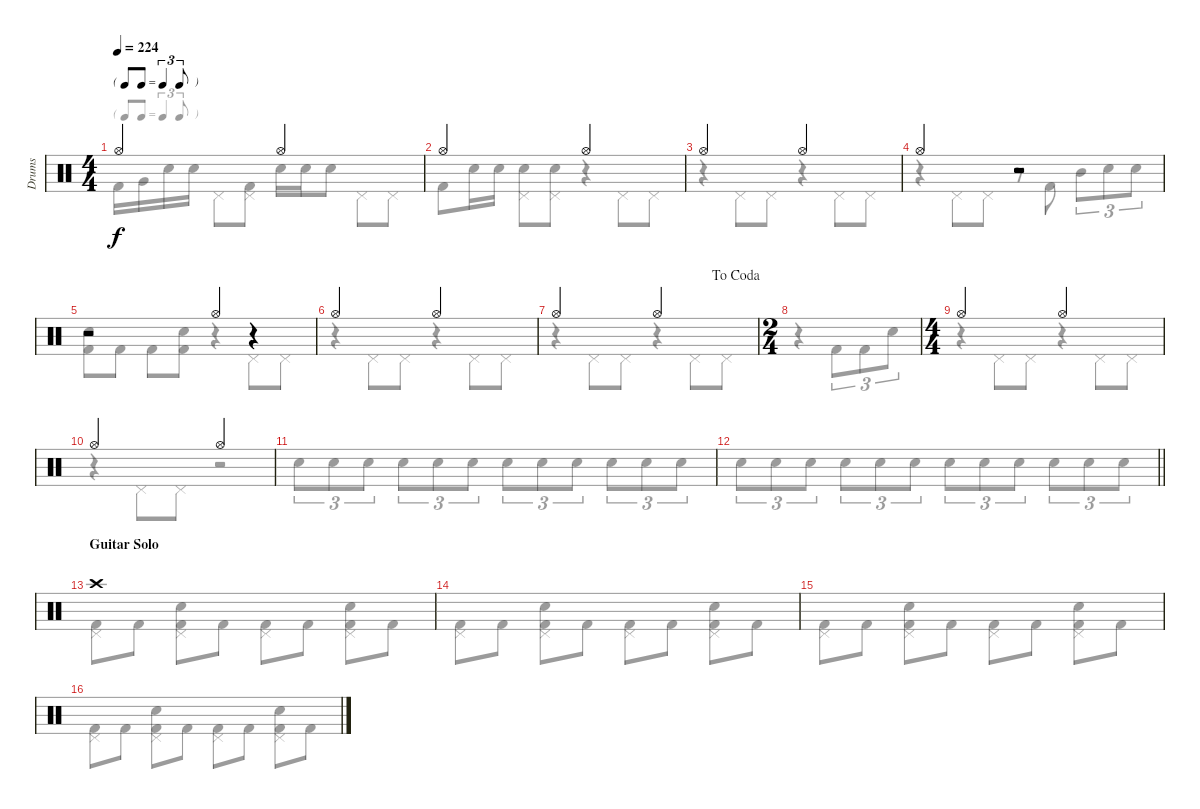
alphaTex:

\track ("Drums" "Drums") {instrument percussion}
\staff {score}
\articulation defaults
\voice
\ts (4 4)
\tf triplet8th
\tempo 224
\clef neutral
\ks c "Hi-Hat (open)".2{dy f} "Hi-Hat (open)".2
|
"Hi-Hat (open)".2 "Hi-Hat (open)".2 |
"Hi-Hat (open)".2 "Hi-Hat (open)".2 |
"Hi-Hat (open)".2 r.2 |
r.2 "Hi-Hat (open)".4 r.4 |
"Hi-Hat (open)".2 "Hi-Hat (open)".2 |
\jump dacoda "Hi-Hat (open)".2 "Hi-Hat (open)".2
|
\ts (2 4)
|
\ts (4 4)
"Hi-Hat (open)".2 "Hi-Hat (open)".2 |
"Hi-Hat (open)".2 "Hi-Hat (open)".2 |
|
\barLineRight lightlight
|
\section ("" "Guitar Solo")
"Crash high (hit)".1 |
|
|
\voice
\clef neutral
\ottava regular
\simile none
\ks c "Kick (hit) 2".16{dy f} "Very Low Tom (hit)".16 "Electric Snare (hit)".16 "Electric Snare (hit)".16 "Pedal Hi-Hat (hit)".8
("Pedal Hi-Hat (hit)" "Kick (hit) 2").8 "Electric Snare (hit)".16 "Electric Snare (hit)".16 "Electric Snare (hit)".8 "Pedal Hi-Hat (hit)".8 "Pedal Hi-Hat (hit)".8 |
"Kick (hit) 2".8 "Electric Snare (hit)".16 "Electric Snare (hit)".16 ("Electric Snare (hit)" "Pedal Hi-Hat (hit)").8 ("Electric Snare (hit)" "Pedal Hi-Hat (hit)").8 r.4 "Pedal Hi-Hat (hit)".8 "Pedal Hi-Hat (hit)".8 |
r.4 "Pedal Hi-Hat (hit)".8 "Pedal Hi-Hat (hit)".8 r.4 "Pedal Hi-Hat (hit)".8 "Pedal Hi-Hat (hit)".8 |
r.4 "Pedal Hi-Hat (hit)".8 "Pedal Hi-Hat (hit)".8 r.8 "Kick (hit) 2".8 "Mid Tom (hit)".8{tu (3 2)} "Electric Snare (hit)".8{tu (3 2)} "Electric Snare (hit)".8{tu (3 2)} |
("Electric Snare (hit)" "Kick (hit) 2").8 "Kick (hit) 2".8 "Kick (hit) 2".8 ("Electric Snare (hit)" "Kick (hit) 2").8 r.4 "Pedal Hi-Hat (hit)".8 "Pedal Hi-Hat (hit)".8 |
r.4 "Pedal Hi-Hat (hit)".8 "Pedal Hi-Hat (hit)".8 r.4 "Pedal Hi-Hat (hit)".8 "Pedal Hi-Hat (hit)".8 |
r.4 "Pedal Hi-Hat (hit)".8 "Pedal Hi-Hat (hit)".8 r.4 "Pedal Hi-Hat (hit)".8 "Pedal Hi-Hat (hit)".8 |
r.4 "Kick (hit) 2".8{tu (3 2)} "Kick (hit) 2".8{tu (3 2)} "Electric Snare (hit)".8{tu (3 2)} |
r.4 "Pedal Hi-Hat (hit)".8 "Pedal Hi-Hat (hit)".8 r.4 "Pedal Hi-Hat (hit)".8 "Pedal Hi-Hat (hit)".8 |
r.4 "Pedal Hi-Hat (hit)".8 "Pedal Hi-Hat (hit)".8 r.2 |
"Electric Snare (hit)".8{tu (3 2)} "Electric Snare (hit)".8{tu (3 2)} "Electric Snare (hit)".8{tu (3 2)} "Electric Snare (hit)".8{tu (3 2)} "Electric Snare (hit)".8{tu (3 2)} "Electric Snare (hit)".8{tu (3 2)} "Electric Snare (hit)".8{tu (3 2)} "Electric Snare (hit)".8{tu (3 2)} "Electric Snare (hit)".8{tu (3 2)} "Electric Snare (hit)".8{tu (3 2)} "Electric Snare (hit)".8{tu (3 2)} "Electric Snare (hit)".8{tu (3 2)} |
\barLineRight lightlight "Electric Snare (hit)".8{tu (3 2)} "Electric Snare (hit)".8{tu (3 2)} "Electric Snare (hit)".8{tu (3 2)} "Electric Snare (hit)".8{tu (3 2)} "Electric Snare (hit)".8{tu (3 2)} "Electric Snare (hit)".8{tu (3 2)} "Electric Snare (hit)".8{tu (3 2)} "Electric Snare (hit)".8{tu (3 2)} "Electric Snare (hit)".8{tu (3 2)} "Electric Snare (hit)".8{tu (3 2)} "Electric Snare (hit)".8{tu (3 2)} "Electric Snare (hit)".8{tu (3 2)}
|
("Kick (hit) 2" "Pedal Hi-Hat (hit)").8 "Kick (hit) 2".8 ("Electric Snare (hit)" "Kick (hit) 2" "Pedal Hi-Hat (hit)").8 "Kick (hit) 2".8 ("Kick (hit) 2" "Pedal Hi-Hat (hit)").8 "Kick (hit) 2".8 ("Electric Snare (hit)" "Kick (hit) 2" "Pedal Hi-Hat (hit)").8 "Kick (hit) 2".8 |
("Kick (hit) 2" "Pedal Hi-Hat (hit)").8 "Kick (hit) 2".8 ("Electric Snare (hit)" "Kick (hit) 2" "Pedal Hi-Hat (hit)").8 "Kick (hit) 2".8 ("Kick (hit) 2" "Pedal Hi-Hat (hit)").8 "Kick (hit) 2".8 ("Electric Snare (hit)" "Kick (hit) 2" "Pedal Hi-Hat (hit)").8 "Kick (hit) 2".8 |
("Kick (hit) 2" "Pedal Hi-Hat (hit)").8 "Kick (hit) 2".8 ("Electric Snare (hit)" "Kick (hit) 2" "Pedal Hi-Hat (hit)").8 "Kick (hit) 2".8 ("Kick (hit) 2" "Pedal Hi-Hat (hit)").8 "Kick (hit) 2".8 ("Electric Snare (hit)" "Kick (hit) 2" "Pedal Hi-Hat (hit)").8 "Kick (hit) 2".8 |
("Kick (hit) 2" "Pedal Hi-Hat (hit)").8 "Kick (hit) 2".8 ("Electric Snare (hit)" "Kick (hit) 2" "Pedal Hi-Hat (hit)").8 "Kick (hit) 2".8 ("Kick (hit) 2" "Pedal Hi-Hat (hit)").8 "Kick (hit) 2".8 ("Electric Snare (hit)" "Kick (hit) 2" "Pedal Hi-Hat (hit)").8 "Kick (hit) 2".8
